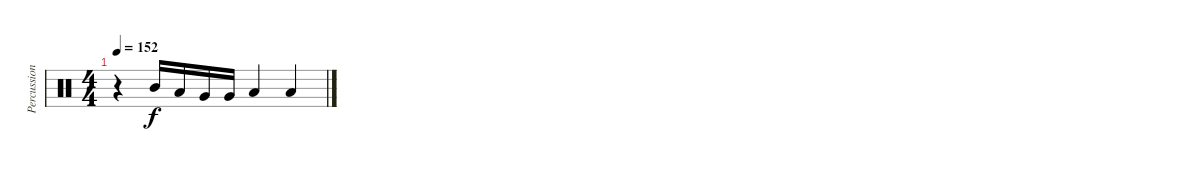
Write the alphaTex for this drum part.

\track ("Percussion" "Percussion") {instrument percussion}
\staff {score}
\articulation defaults
\ts (4 4)
\tempo 152
\clef neutral
\ks c
r.4{dy f} "Mid Tom (hit)".16 "Low Tom (hit)".16 "Very Low Tom (hit)".16 "Very Low Tom (hit)".16 "Low Floor Tom (hit)".4 "Low Tom (hit)".4
